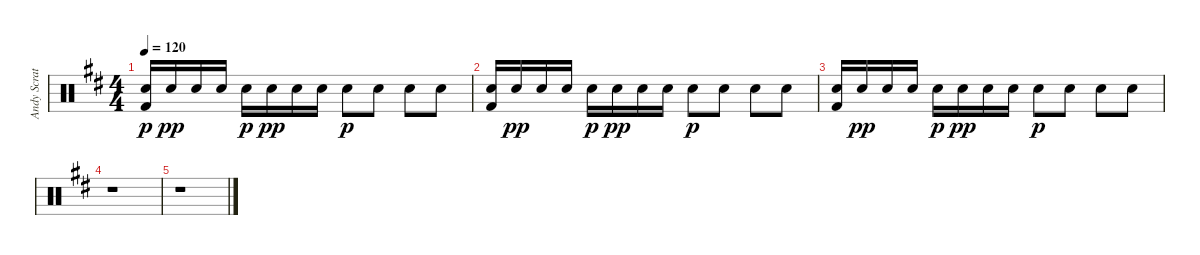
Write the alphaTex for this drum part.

\track ("Andy Scratchen (Drums)" "Andy Scrat") {instrument percussion}
\staff {score}
\articulation defaults
\ts (4 4)
\tempo 120
\clef neutral
\ks bminor
("Snare (hit) 2" "Kick (hit) 2").16{dy p} "Snare (hit) 2".16{dy pp} "Snare (hit) 2".16 "Snare (hit) 2".16 "Snare (hit) 2".16{dy p} "Snare (hit) 2".16{dy pp} "Snare (hit) 2".16 "Snare (hit) 2".16 "Snare (hit) 2".8{dy p} "Snare (hit) 2".8 "Snare (hit) 2".8 "Snare (hit) 2".8 |
("Snare (hit) 2" "Kick (hit) 2").16 "Snare (hit) 2".16{dy pp} "Snare (hit) 2".16 "Snare (hit) 2".16 "Snare (hit) 2".16{dy p} "Snare (hit) 2".16{dy pp} "Snare (hit) 2".16 "Snare (hit) 2".16 "Snare (hit) 2".8{dy p} "Snare (hit) 2".8 "Snare (hit) 2".8 "Snare (hit) 2".8 |
("Snare (hit) 2" "Kick (hit) 2").16 "Snare (hit) 2".16{dy pp} "Snare (hit) 2".16 "Snare (hit) 2".16 "Snare (hit) 2".16{dy p} "Snare (hit) 2".16{dy pp} "Snare (hit) 2".16 "Snare (hit) 2".16 "Snare (hit) 2".8{dy p} "Snare (hit) 2".8 "Snare (hit) 2".8 "Snare (hit) 2".8 |
r.1 |
r.1
